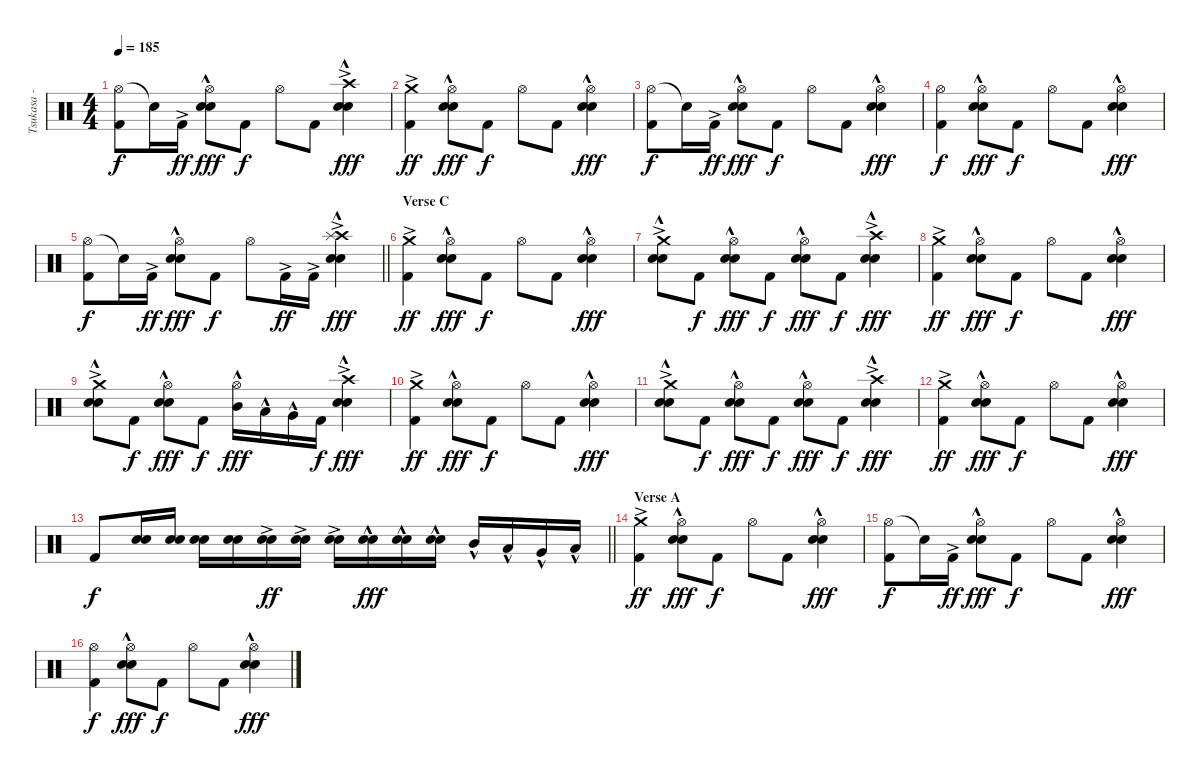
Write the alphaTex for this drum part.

\track ("Tsukasa - Drums" "Tsukasa - ") {instrument percussion}
\staff {score}
\articulation defaults
\ts (4 4)
\tempo 185
\clef neutral
\ks c
("Hi-Hat (open)" "Kick (hit) 2").8{dy f} "Snare (hit)"{t}.16 "Kick (hit) 2"{ac}.16{dy ff} ("Hi-Hat (open)" "Electric Snare (hit)"{hac} "Snare (hit) 2"{hac}).8{dy fff} "Kick (hit) 2".8{dy f} "Hi-Hat (open)".8 "Kick (hit) 2".8 ("Crash high (hit)"{ac} "Electric Snare (hit)"{hac} "Snare (hit) 2"{hac}).4{dy fff} |
("Crash medium (hit)"{ac} "Kick (hit) 2").4{dy ff} ("Hi-Hat (open)" "Electric Snare (hit)"{hac} "Snare (hit) 2"{hac}).8{dy fff} "Kick (hit) 2".8{dy f} "Hi-Hat (open)".8 "Kick (hit) 2".8 ("Hi-Hat (open)" "Electric Snare (hit)"{hac} "Snare (hit) 2"{hac}).4{dy fff} |
("Hi-Hat (open)" "Kick (hit) 2").8{dy f} "Snare (hit)"{t}.16 "Kick (hit) 2"{ac}.16{dy ff} ("Hi-Hat (open)" "Electric Snare (hit)"{hac} "Snare (hit) 2"{hac}).8{dy fff} "Kick (hit) 2".8{dy f} "Hi-Hat (open)".8 "Kick (hit) 2".8 ("Hi-Hat (open)" "Electric Snare (hit)"{hac} "Snare (hit) 2"{hac}).4{dy fff} |
("Hi-Hat (open)" "Kick (hit) 2").4{dy f} ("Hi-Hat (open)" "Electric Snare (hit)"{hac} "Snare (hit) 2"{hac}).8{dy fff} "Kick (hit) 2".8{dy f} "Hi-Hat (open)".8 "Kick (hit) 2".8 ("Hi-Hat (open)" "Electric Snare (hit)"{hac} "Snare (hit) 2"{hac}).4{dy fff} |
\barLineRight lightlight
("Hi-Hat (open)" "Kick (hit) 2").8{dy f} "Snare (hit)"{t}.16 "Kick (hit) 2"{ac}.16{dy ff} ("Hi-Hat (open)" "Electric Snare (hit)"{hac} "Snare (hit) 2"{hac}).8{dy fff} "Kick (hit) 2".8{dy f} "Hi-Hat (open)".8 "Kick (hit) 2"{ac}.16{dy ff} "Kick (hit) 2"{ac}.16 ("Crash high (hit)"{ac} "Splash (hit)"{ac} "Electric Snare (hit)"{hac} "Snare (hit) 2"{hac}).4{dy fff} |
\section ("" "Verse C")
("Crash medium (hit)"{ac} "Kick (hit) 2").4{dy ff} ("Hi-Hat (open)" "Electric Snare (hit)"{hac} "Snare (hit) 2"{hac}).8{dy fff} "Kick (hit) 2".8{dy f} "Hi-Hat (open)".8 "Kick (hit) 2".8 ("Hi-Hat (open)" "Electric Snare (hit)"{hac} "Snare (hit) 2"{hac}).4{dy fff} |
("Crash medium (hit)"{ac} "Electric Snare (hit)"{hac} "Snare (hit) 2"{hac}).8 "Kick (hit) 2".8{dy f} ("Hi-Hat (open)" "Electric Snare (hit)"{hac} "Snare (hit) 2"{hac}).8{dy fff} "Kick (hit) 2".8{dy f} ("Hi-Hat (open)" "Electric Snare (hit)"{hac} "Snare (hit) 2"{hac}).8{dy fff} "Kick (hit) 2".8{dy f} ("Crash high (hit)"{ac} "Electric Snare (hit)"{hac} "Snare (hit) 2"{hac}).4{dy fff} |
("Crash medium (hit)"{ac} "Kick (hit) 2").4{dy ff} ("Hi-Hat (open)" "Electric Snare (hit)"{hac} "Snare (hit) 2"{hac}).8{dy fff} "Kick (hit) 2".8{dy f} "Hi-Hat (open)".8 "Kick (hit) 2".8 ("Hi-Hat (open)" "Electric Snare (hit)"{hac} "Snare (hit) 2"{hac}).4{dy fff} |
("Crash medium (hit)"{ac} "Electric Snare (hit)"{hac} "Snare (hit) 2"{hac}).8 "Kick (hit) 2".8{dy f} ("Hi-Hat (open)" "Electric Snare (hit)"{hac} "Snare (hit) 2"{hac}).8{dy fff} "Kick (hit) 2".8{dy f} ("Hi-Hat (open)" "Mid Tom (hit)"{hac}).16{dy fff} "Low Tom (hit)"{hac}.16 "Very Low Tom (hit)"{hac}.16 "Kick (hit) 2".16{dy f} ("Crash high (hit)"{ac} "Electric Snare (hit)"{hac} "Snare (hit) 2"{hac}).4{dy fff} |
("Crash medium (hit)"{ac} "Kick (hit) 2").4{dy ff} ("Hi-Hat (open)" "Electric Snare (hit)"{hac} "Snare (hit) 2"{hac}).8{dy fff} "Kick (hit) 2".8{dy f} "Hi-Hat (open)".8 "Kick (hit) 2".8 ("Hi-Hat (open)" "Electric Snare (hit)"{hac} "Snare (hit) 2"{hac}).4{dy fff} |
("Crash medium (hit)"{ac} "Electric Snare (hit)"{hac} "Snare (hit) 2"{hac}).8 "Kick (hit) 2".8{dy f} ("Hi-Hat (open)" "Electric Snare (hit)"{hac} "Snare (hit) 2"{hac}).8{dy fff} "Kick (hit) 2".8{dy f} ("Hi-Hat (open)" "Electric Snare (hit)"{hac} "Snare (hit) 2"{hac}).8{dy fff} "Kick (hit) 2".8{dy f} ("Crash high (hit)"{ac} "Electric Snare (hit)"{hac} "Snare (hit) 2"{hac}).4{dy fff} |
("Crash medium (hit)"{ac} "Kick (hit) 2").4{dy ff} ("Hi-Hat (open)" "Electric Snare (hit)"{hac} "Snare (hit) 2"{hac}).8{dy fff} "Kick (hit) 2".8{dy f} "Hi-Hat (open)".8 "Kick (hit) 2".8 ("Hi-Hat (open)" "Electric Snare (hit)"{hac} "Snare (hit) 2"{hac}).4{dy fff} |
\barLineRight lightlight "Kick (hit) 2".8{dy f}
("Electric Snare (hit)" "Snare (hit) 2").16 ("Electric Snare (hit)" "Snare (hit) 2").16 ("Electric Snare (hit)" "Snare (hit) 2").16 ("Electric Snare (hit)" "Snare (hit) 2").16 ("Electric Snare (hit)"{ac} "Snare (hit) 2"{ac}).16{dy ff} ("Electric Snare (hit)"{ac} "Snare (hit) 2"{ac}).16 ("Electric Snare (hit)"{ac} "Snare (hit) 2"{ac}).16 ("Electric Snare (hit)"{hac} "Snare (hit) 2"{hac}).16{dy fff} ("Electric Snare (hit)"{hac} "Snare (hit) 2"{hac}).16 ("Electric Snare (hit)"{hac} "Snare (hit) 2"{hac}).16 "Mid Tom (hit)"{hac}.16 "Low Tom (hit)"{hac}.16 "Very Low Tom (hit)"{hac}.16 "Low Floor Tom (hit)"{hac}.16 |
\section ("" "Verse A")
("Crash medium (hit)"{ac} "Kick (hit) 2").4{dy ff} ("Hi-Hat (open)" "Electric Snare (hit)"{hac} "Snare (hit) 2"{hac}).8{dy fff} "Kick (hit) 2".8{dy f} "Hi-Hat (open)".8 "Kick (hit) 2".8 ("Hi-Hat (open)" "Electric Snare (hit)"{hac} "Snare (hit) 2"{hac}).4{dy fff} |
("Hi-Hat (open)" "Kick (hit) 2").8{dy f} "Snare (hit)"{t}.16 "Kick (hit) 2"{ac}.16{dy ff} ("Hi-Hat (open)" "Electric Snare (hit)"{hac} "Snare (hit) 2"{hac}).8{dy fff} "Kick (hit) 2".8{dy f} "Hi-Hat (open)".8 "Kick (hit) 2".8 ("Hi-Hat (open)" "Electric Snare (hit)"{hac} "Snare (hit) 2"{hac}).4{dy fff} |
("Hi-Hat (open)" "Kick (hit) 2").4{dy f} ("Hi-Hat (open)" "Electric Snare (hit)"{hac} "Snare (hit) 2"{hac}).8{dy fff} "Kick (hit) 2".8{dy f} "Hi-Hat (open)".8 "Kick (hit) 2".8 ("Hi-Hat (open)" "Electric Snare (hit)"{hac} "Snare (hit) 2"{hac}).4{dy fff}
